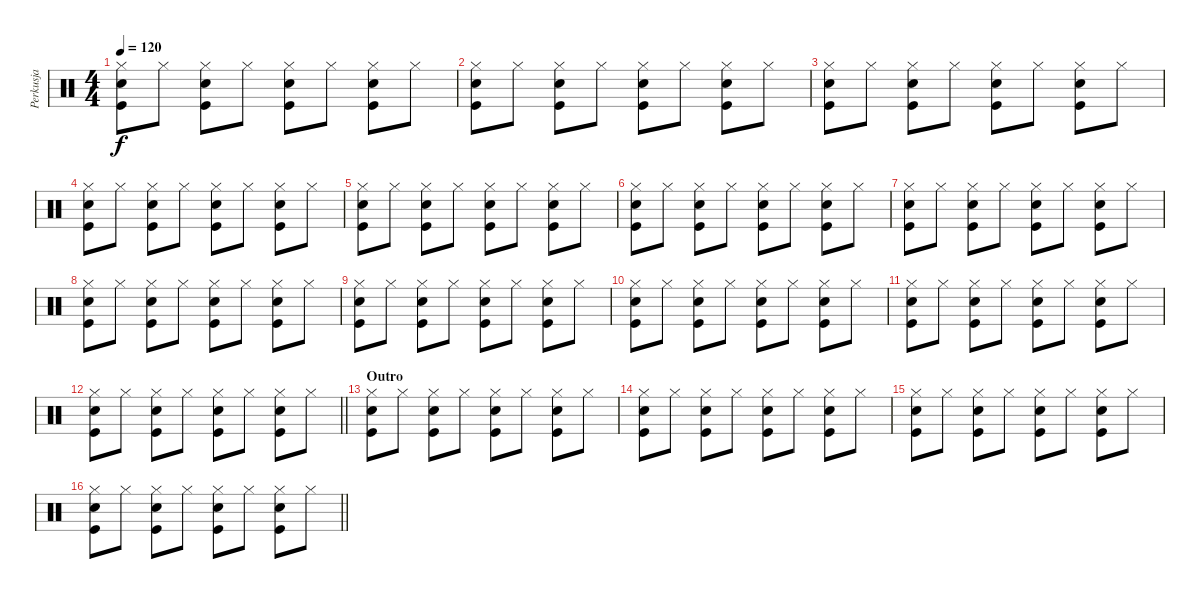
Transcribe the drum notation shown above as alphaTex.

\track ("Perkusja" "Perkusja") {instrument percussion}
\staff {score}
\articulation defaults
\ts (4 4)
\tempo 120
\clef neutral
\ks c
("Snare (hit) 2" "Kick (hit)" "Hi-Hat (closed)").8{dy f} "Hi-Hat (closed)".8 ("Kick (hit)" "Snare (hit) 2" "Hi-Hat (closed)").8 "Hi-Hat (closed)".8 ("Snare (hit) 2" "Kick (hit)" "Hi-Hat (closed)").8 "Hi-Hat (closed)".8 ("Kick (hit)" "Snare (hit) 2" "Hi-Hat (closed)").8 "Hi-Hat (closed)".8 |
("Snare (hit) 2" "Kick (hit)" "Hi-Hat (closed)").8 "Hi-Hat (closed)".8 ("Kick (hit)" "Snare (hit) 2" "Hi-Hat (closed)").8 "Hi-Hat (closed)".8 ("Snare (hit) 2" "Kick (hit)" "Hi-Hat (closed)").8 "Hi-Hat (closed)".8 ("Kick (hit)" "Snare (hit) 2" "Hi-Hat (closed)").8 "Hi-Hat (closed)".8 |
("Snare (hit) 2" "Kick (hit)" "Hi-Hat (closed)").8 "Hi-Hat (closed)".8 ("Kick (hit)" "Snare (hit) 2" "Hi-Hat (closed)").8 "Hi-Hat (closed)".8 ("Snare (hit) 2" "Kick (hit)" "Hi-Hat (closed)").8 "Hi-Hat (closed)".8 ("Kick (hit)" "Snare (hit) 2" "Hi-Hat (closed)").8 "Hi-Hat (closed)".8 |
("Snare (hit) 2" "Kick (hit)" "Hi-Hat (closed)").8 "Hi-Hat (closed)".8 ("Kick (hit)" "Snare (hit) 2" "Hi-Hat (closed)").8 "Hi-Hat (closed)".8 ("Snare (hit) 2" "Kick (hit)" "Hi-Hat (closed)").8 "Hi-Hat (closed)".8 ("Kick (hit)" "Snare (hit) 2" "Hi-Hat (closed)").8 "Hi-Hat (closed)".8 |
("Snare (hit) 2" "Kick (hit)" "Hi-Hat (closed)").8 "Hi-Hat (closed)".8 ("Kick (hit)" "Snare (hit) 2" "Hi-Hat (closed)").8 "Hi-Hat (closed)".8 ("Snare (hit) 2" "Kick (hit)" "Hi-Hat (closed)").8 "Hi-Hat (closed)".8 ("Kick (hit)" "Snare (hit) 2" "Hi-Hat (closed)").8 "Hi-Hat (closed)".8 |
("Snare (hit) 2" "Kick (hit)" "Hi-Hat (closed)").8 "Hi-Hat (closed)".8 ("Kick (hit)" "Snare (hit) 2" "Hi-Hat (closed)").8 "Hi-Hat (closed)".8 ("Snare (hit) 2" "Kick (hit)" "Hi-Hat (closed)").8 "Hi-Hat (closed)".8 ("Kick (hit)" "Snare (hit) 2" "Hi-Hat (closed)").8 "Hi-Hat (closed)".8 |
("Snare (hit) 2" "Kick (hit)" "Hi-Hat (closed)").8 "Hi-Hat (closed)".8 ("Kick (hit)" "Snare (hit) 2" "Hi-Hat (closed)").8 "Hi-Hat (closed)".8 ("Snare (hit) 2" "Kick (hit)" "Hi-Hat (closed)").8 "Hi-Hat (closed)".8 ("Kick (hit)" "Snare (hit) 2" "Hi-Hat (closed)").8 "Hi-Hat (closed)".8 |
("Snare (hit) 2" "Kick (hit)" "Hi-Hat (closed)").8 "Hi-Hat (closed)".8 ("Kick (hit)" "Snare (hit) 2" "Hi-Hat (closed)").8 "Hi-Hat (closed)".8 ("Snare (hit) 2" "Kick (hit)" "Hi-Hat (closed)").8 "Hi-Hat (closed)".8 ("Kick (hit)" "Snare (hit) 2" "Hi-Hat (closed)").8 "Hi-Hat (closed)".8 |
("Snare (hit) 2" "Kick (hit)" "Hi-Hat (closed)").8 "Hi-Hat (closed)".8 ("Kick (hit)" "Snare (hit) 2" "Hi-Hat (closed)").8 "Hi-Hat (closed)".8 ("Snare (hit) 2" "Kick (hit)" "Hi-Hat (closed)").8 "Hi-Hat (closed)".8 ("Kick (hit)" "Snare (hit) 2" "Hi-Hat (closed)").8 "Hi-Hat (closed)".8 |
("Snare (hit) 2" "Kick (hit)" "Hi-Hat (closed)").8 "Hi-Hat (closed)".8 ("Kick (hit)" "Snare (hit) 2" "Hi-Hat (closed)").8 "Hi-Hat (closed)".8 ("Snare (hit) 2" "Kick (hit)" "Hi-Hat (closed)").8 "Hi-Hat (closed)".8 ("Kick (hit)" "Snare (hit) 2" "Hi-Hat (closed)").8 "Hi-Hat (closed)".8 |
("Snare (hit) 2" "Kick (hit)" "Hi-Hat (closed)").8 "Hi-Hat (closed)".8 ("Kick (hit)" "Snare (hit) 2" "Hi-Hat (closed)").8 "Hi-Hat (closed)".8 ("Snare (hit) 2" "Kick (hit)" "Hi-Hat (closed)").8 "Hi-Hat (closed)".8 ("Kick (hit)" "Snare (hit) 2" "Hi-Hat (closed)").8 "Hi-Hat (closed)".8 |
\barLineRight lightlight
("Snare (hit) 2" "Kick (hit)" "Hi-Hat (closed)").8 "Hi-Hat (closed)".8 ("Kick (hit)" "Snare (hit) 2" "Hi-Hat (closed)").8 "Hi-Hat (closed)".8 ("Snare (hit) 2" "Kick (hit)" "Hi-Hat (closed)").8 "Hi-Hat (closed)".8 ("Kick (hit)" "Snare (hit) 2" "Hi-Hat (closed)").8 "Hi-Hat (closed)".8 |
\section ("" "Outro")
("Snare (hit) 2" "Kick (hit)" "Hi-Hat (closed)").8 "Hi-Hat (closed)".8 ("Kick (hit)" "Snare (hit) 2" "Hi-Hat (closed)").8 "Hi-Hat (closed)".8 ("Snare (hit) 2" "Kick (hit)" "Hi-Hat (closed)").8 "Hi-Hat (closed)".8 ("Kick (hit)" "Snare (hit) 2" "Hi-Hat (closed)").8 "Hi-Hat (closed)".8 |
("Snare (hit) 2" "Kick (hit)" "Hi-Hat (closed)").8 "Hi-Hat (closed)".8 ("Kick (hit)" "Snare (hit) 2" "Hi-Hat (closed)").8 "Hi-Hat (closed)".8 ("Snare (hit) 2" "Kick (hit)" "Hi-Hat (closed)").8 "Hi-Hat (closed)".8 ("Kick (hit)" "Snare (hit) 2" "Hi-Hat (closed)").8 "Hi-Hat (closed)".8 |
("Snare (hit) 2" "Kick (hit)" "Hi-Hat (closed)").8 "Hi-Hat (closed)".8 ("Kick (hit)" "Snare (hit) 2" "Hi-Hat (closed)").8 "Hi-Hat (closed)".8 ("Snare (hit) 2" "Kick (hit)" "Hi-Hat (closed)").8 "Hi-Hat (closed)".8 ("Kick (hit)" "Snare (hit) 2" "Hi-Hat (closed)").8 "Hi-Hat (closed)".8 |
\barLineRight lightlight
("Snare (hit) 2" "Kick (hit)" "Hi-Hat (closed)").8 "Hi-Hat (closed)".8 ("Kick (hit)" "Snare (hit) 2" "Hi-Hat (closed)").8 "Hi-Hat (closed)".8 ("Snare (hit) 2" "Kick (hit)" "Hi-Hat (closed)").8 "Hi-Hat (closed)".8 ("Kick (hit)" "Snare (hit) 2" "Hi-Hat (closed)").8 "Hi-Hat (closed)".8
